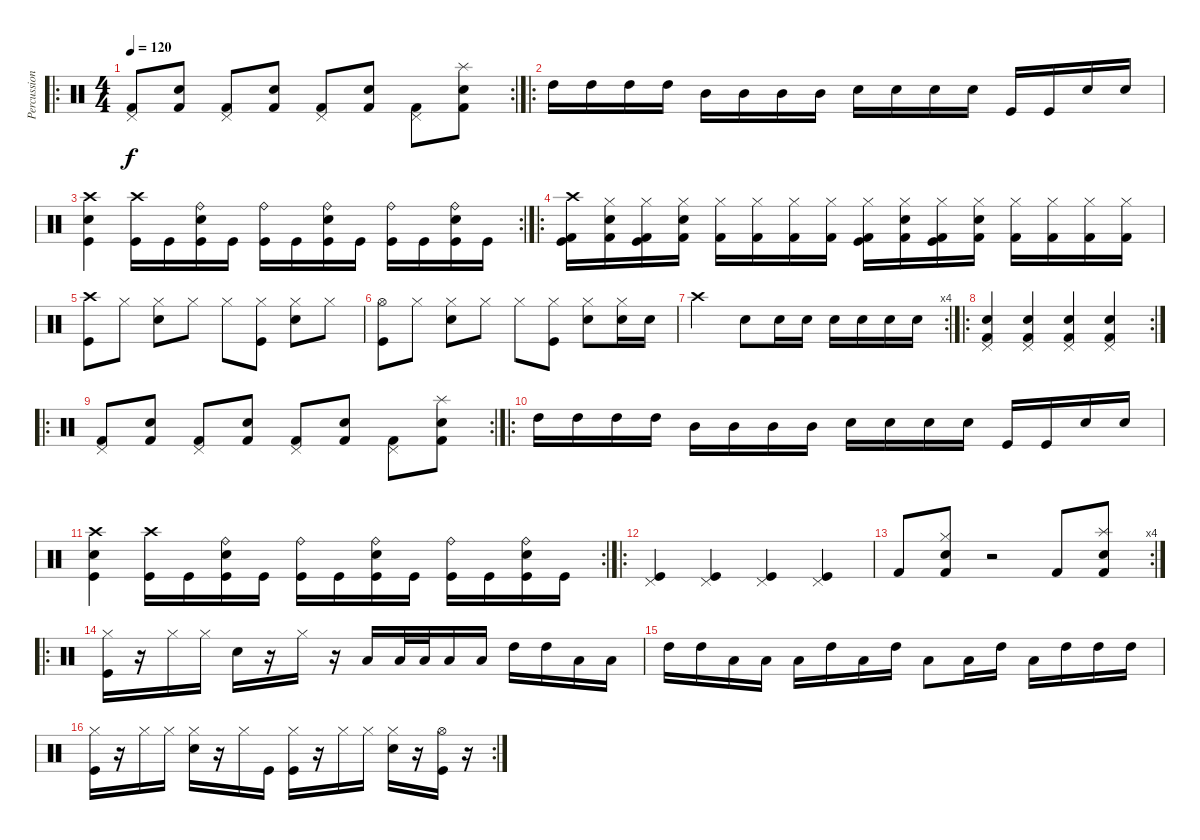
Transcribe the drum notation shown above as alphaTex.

\track ("Percussions Michael" "Percussion") {instrument percussion}
\staff {score}
\articulation defaults
\ro
\rc 2
\ts (4 4)
\tempo 120
\clef neutral
\ks c
("Pedal Hi-Hat (hit)" "Kick (hit) 2").8{dy f} ("Electric Snare (hit)" "Kick (hit) 2").8 ("Pedal Hi-Hat (hit)" "Kick (hit) 2").8 ("Electric Snare (hit)" "Kick (hit) 2").8 ("Pedal Hi-Hat (hit)" "Kick (hit) 2").8 ("Electric Snare (hit)" "Kick (hit) 2").8 ("Pedal Hi-Hat (hit)" "Kick (hit) 2").8 ("Splash (hit)" "Electric Snare (hit)" "Kick (hit) 2").8 |
\ro "High Tom (hit)".16 "High Tom (hit)".16 "High Tom (hit)".16 "High Tom (hit)".16 "Mid Tom (hit)".16 "Mid Tom (hit)".16 "Mid Tom (hit)".16 "Mid Tom (hit)".16 "Electric Snare (hit)".16 "Electric Snare (hit)".16 "Electric Snare (hit)".16 "Electric Snare (hit)".16 "Kick (hit)".16 "Kick (hit)".16 "Electric Snare (hit)".16 "Electric Snare (hit)".16
|
\rc 2
("Crash high (hit)" "Kick (hit)" "Electric Snare (hit)").4 ("Crash high (hit)" "Kick (hit)").16 "Kick (hit)".16 ("Ride (bell)" "Electric Snare (hit)" "Kick (hit)").16 "Kick (hit)".16 ("Ride (bell)" "Kick (hit)").16 "Kick (hit)".16 ("Ride (bell)" "Electric Snare (hit)" "Kick (hit)").16 "Kick (hit)".16 ("Ride (bell)" "Kick (hit)").16 "Kick (hit)".16 ("Ride (bell)" "Electric Snare (hit)" "Kick (hit)").16 "Kick (hit)".16 |
\ro
("Crash high (hit)" "Kick (hit)" "Kick (hit) 2").16 ("Hi-Hat (closed)" "Electric Snare (hit)" "Kick (hit) 2").16 ("Hi-Hat (closed)" "Kick (hit)" "Kick (hit) 2").16 ("Hi-Hat (closed)" "Electric Snare (hit)" "Kick (hit) 2").16 ("Hi-Hat (closed)" "Kick (hit) 2").16 ("Hi-Hat (closed)" "Kick (hit) 2").16 ("Hi-Hat (closed)" "Kick (hit) 2").16 ("Hi-Hat (closed)" "Kick (hit) 2").16 ("Hi-Hat (closed)" "Kick (hit)" "Kick (hit) 2").16 ("Hi-Hat (closed)" "Electric Snare (hit)" "Kick (hit) 2").16 ("Hi-Hat (closed)" "Kick (hit)" "Kick (hit) 2").16 ("Hi-Hat (closed)" "Electric Snare (hit)" "Kick (hit) 2").16 ("Hi-Hat (closed)" "Kick (hit) 2").16 ("Hi-Hat (closed)" "Kick (hit) 2").16 ("Hi-Hat (closed)" "Kick (hit) 2").16 ("Hi-Hat (closed)" "Kick (hit) 2").16 |
("Crash high (hit)" "Kick (hit)").8 "Hi-Hat (closed)".8 ("Hi-Hat (closed)" "Electric Snare (hit)").8 "Hi-Hat (closed)".8 "Hi-Hat (closed)".8 ("Hi-Hat (closed)" "Kick (hit)").8 ("Hi-Hat (closed)" "Electric Snare (hit)").8 "Hi-Hat (closed)".8 |
("Hi-Hat (open)" "Kick (hit)").8 "Hi-Hat (closed)".8 ("Hi-Hat (closed)" "Electric Snare (hit)").8 "Hi-Hat (closed)".8 "Hi-Hat (closed)".8 ("Hi-Hat (closed)" "Kick (hit)").8 ("Hi-Hat (closed)" "Electric Snare (hit)").8 ("Hi-Hat (closed)" "Electric Snare (hit)").16 "Electric Snare (hit)".16 |
\rc 4 "Crash high (hit)".2 "Electric Snare (hit)".8 "Electric Snare (hit)".16 "Electric Snare (hit)".16 "Electric Snare (hit)".16 "Electric Snare (hit)".16 "Electric Snare (hit)".16 "Electric Snare (hit)".16
|
\ro
\rc 2
("Electric Snare (hit)" "Kick (hit) 2" "Pedal Hi-Hat (hit)").4 ("Electric Snare (hit)" "Kick (hit) 2" "Pedal Hi-Hat (hit)").4 ("Electric Snare (hit)" "Kick (hit) 2" "Pedal Hi-Hat (hit)").4 ("Electric Snare (hit)" "Kick (hit) 2" "Pedal Hi-Hat (hit)").4 |
\ro
\rc 2
("Pedal Hi-Hat (hit)" "Kick (hit) 2").8 ("Electric Snare (hit)" "Kick (hit) 2").8 ("Pedal Hi-Hat (hit)" "Kick (hit) 2").8 ("Electric Snare (hit)" "Kick (hit) 2").8 ("Pedal Hi-Hat (hit)" "Kick (hit) 2").8 ("Electric Snare (hit)" "Kick (hit) 2").8 ("Pedal Hi-Hat (hit)" "Kick (hit) 2").8 ("Splash (hit)" "Electric Snare (hit)" "Kick (hit) 2").8 |
\ro "High Tom (hit)".16 "High Tom (hit)".16 "High Tom (hit)".16 "High Tom (hit)".16 "Mid Tom (hit)".16 "Mid Tom (hit)".16 "Mid Tom (hit)".16 "Mid Tom (hit)".16 "Electric Snare (hit)".16 "Electric Snare (hit)".16 "Electric Snare (hit)".16 "Electric Snare (hit)".16 "Kick (hit)".16 "Kick (hit)".16 "Electric Snare (hit)".16 "Electric Snare (hit)".16
|
\rc 2
("Crash high (hit)" "Kick (hit)" "Electric Snare (hit)").4 ("Crash high (hit)" "Kick (hit)").16 "Kick (hit)".16 ("Ride (bell)" "Electric Snare (hit)" "Kick (hit)").16 "Kick (hit)".16 ("Ride (bell)" "Kick (hit)").16 "Kick (hit)".16 ("Ride (bell)" "Electric Snare (hit)" "Kick (hit)").16 "Kick (hit)".16 ("Ride (bell)" "Kick (hit)").16 "Kick (hit)".16 ("Ride (bell)" "Electric Snare (hit)" "Kick (hit)").16 "Kick (hit)".16 |
\ro
("Pedal Hi-Hat (hit)" "Kick (hit)").4 ("Pedal Hi-Hat (hit)" "Kick (hit)").4 ("Pedal Hi-Hat (hit)" "Kick (hit)").4 ("Pedal Hi-Hat (hit)" "Kick (hit)").4 |
\rc 4 "Kick (hit) 2".8
("Hi-Hat (closed)" "Snare (hit) 2" "Kick (hit) 2").8 r.2 "Kick (hit) 2".8 ("Splash (hit)" "Snare (hit) 2" "Kick (hit) 2").8 |
\ro
("Kick (hit)" "Hi-Hat (closed)").16 r.16 "Hi-Hat (closed)".16 "Hi-Hat (closed)".16 "Snare (hit) 2".16 r.16 "Hi-Hat (closed)".16 r.16 "Low Floor Tom (hit)".16 "Low Floor Tom (hit)".32 "Low Floor Tom (hit)".32 "Low Floor Tom (hit)".16 "Low Floor Tom (hit)".16 "High Tom (hit)".16 "High Tom (hit)".16 "Low Floor Tom (hit)".16 "Low Floor Tom (hit)".16 |
"High Tom (hit)".16 "High Tom (hit)".16 "Low Tom (hit)".16 "Low Floor Tom (hit)".16 "Low Floor Tom (hit)".16 "High Tom (hit)".16 "Low Floor Tom (hit)".16 "High Tom (hit)".16 "Low Floor Tom (hit)".8 "Low Floor Tom (hit)".16 "High Tom (hit)".16 "Low Floor Tom (hit)".16 "High Tom (hit)".16 "High Tom (hit)".16 "High Tom (hit)".16 |
\rc 2
("Kick (hit)" "Hi-Hat (closed)").16 r.16 "Hi-Hat (closed)".16 "Hi-Hat (closed)".16 ("Snare (hit) 2" "Hi-Hat (closed)").16 r.16 "Hi-Hat (closed)".16 "Kick (hit)".16 ("Kick (hit)" "Hi-Hat (closed)").16 r.16 "Hi-Hat (closed)".16 "Hi-Hat (closed)".16 ("Snare (hit) 2" "Hi-Hat (closed)").16 r.16 ("Kick (hit)" "Hi-Hat (open)").16 r.16
